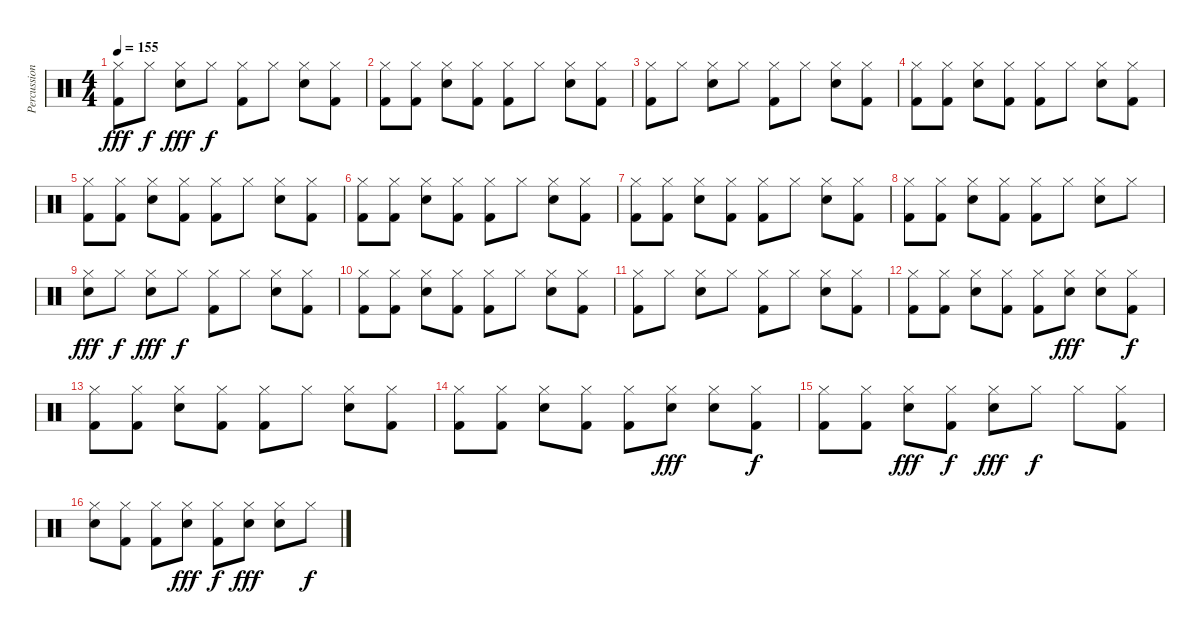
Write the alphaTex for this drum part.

\track ("Percussions" "Percussion") {instrument percussion}
\staff {score}
\articulation defaults
\ts (4 4)
\tempo 155
\clef neutral
\ks c
("Hi-Hat (closed)" "Kick (hit) 2").8{dy fff} "Hi-Hat (closed)".8{dy f} ("Hi-Hat (closed)" "Electric Snare (hit)").8{dy fff} "Hi-Hat (closed)".8{dy f} ("Hi-Hat (closed)" "Kick (hit) 2").8 "Hi-Hat (closed)".8 ("Hi-Hat (closed)" "Electric Snare (hit)").8 ("Hi-Hat (closed)" "Kick (hit) 2").8 |
("Hi-Hat (closed)" "Kick (hit) 2").8 ("Hi-Hat (closed)" "Kick (hit) 2").8 ("Hi-Hat (closed)" "Electric Snare (hit)").8 ("Hi-Hat (closed)" "Kick (hit) 2").8 ("Hi-Hat (closed)" "Kick (hit) 2").8 "Hi-Hat (closed)".8 ("Hi-Hat (closed)" "Electric Snare (hit)").8 ("Hi-Hat (closed)" "Kick (hit) 2").8 |
("Hi-Hat (closed)" "Kick (hit) 2").8 "Hi-Hat (closed)".8 ("Hi-Hat (closed)" "Electric Snare (hit)").8 "Hi-Hat (closed)".8 ("Hi-Hat (closed)" "Kick (hit) 2").8 "Hi-Hat (closed)".8 ("Hi-Hat (closed)" "Electric Snare (hit)").8 ("Hi-Hat (closed)" "Kick (hit) 2").8 |
("Hi-Hat (closed)" "Kick (hit) 2").8 ("Hi-Hat (closed)" "Kick (hit) 2").8 ("Hi-Hat (closed)" "Electric Snare (hit)").8 ("Hi-Hat (closed)" "Kick (hit) 2").8 ("Hi-Hat (closed)" "Kick (hit) 2").8 "Hi-Hat (closed)".8 ("Hi-Hat (closed)" "Electric Snare (hit)").8 ("Hi-Hat (closed)" "Kick (hit) 2").8 |
("Hi-Hat (closed)" "Kick (hit) 2").8 ("Hi-Hat (closed)" "Kick (hit) 2").8 ("Hi-Hat (closed)" "Electric Snare (hit)").8 ("Hi-Hat (closed)" "Kick (hit) 2").8 ("Hi-Hat (closed)" "Kick (hit) 2").8 "Hi-Hat (closed)".8 ("Hi-Hat (closed)" "Electric Snare (hit)").8 ("Hi-Hat (closed)" "Kick (hit) 2").8 |
("Hi-Hat (closed)" "Kick (hit) 2").8 ("Hi-Hat (closed)" "Kick (hit) 2").8 ("Hi-Hat (closed)" "Electric Snare (hit)").8 ("Hi-Hat (closed)" "Kick (hit) 2").8 ("Hi-Hat (closed)" "Kick (hit) 2").8 "Hi-Hat (closed)".8 ("Hi-Hat (closed)" "Electric Snare (hit)").8 ("Hi-Hat (closed)" "Kick (hit) 2").8 |
("Hi-Hat (closed)" "Kick (hit) 2").8 ("Hi-Hat (closed)" "Kick (hit) 2").8 ("Hi-Hat (closed)" "Electric Snare (hit)").8 ("Hi-Hat (closed)" "Kick (hit) 2").8 ("Hi-Hat (closed)" "Kick (hit) 2").8 "Hi-Hat (closed)".8 ("Hi-Hat (closed)" "Electric Snare (hit)").8 ("Hi-Hat (closed)" "Kick (hit) 2").8 |
("Hi-Hat (closed)" "Kick (hit) 2").8 ("Hi-Hat (closed)" "Kick (hit) 2").8 ("Hi-Hat (closed)" "Electric Snare (hit)").8 ("Hi-Hat (closed)" "Kick (hit) 2").8 ("Hi-Hat (closed)" "Kick (hit) 2").8 "Hi-Hat (closed)".8 ("Hi-Hat (closed)" "Electric Snare (hit)").8 "Hi-Hat (closed)".8 |
("Hi-Hat (closed)" "Electric Snare (hit)").8{dy fff} "Hi-Hat (closed)".8{dy f} ("Hi-Hat (closed)" "Electric Snare (hit)").8{dy fff} "Hi-Hat (closed)".8{dy f} ("Hi-Hat (closed)" "Kick (hit) 2").8 "Hi-Hat (closed)".8 ("Hi-Hat (closed)" "Electric Snare (hit)").8 ("Hi-Hat (closed)" "Kick (hit) 2").8 |
("Hi-Hat (closed)" "Kick (hit) 2").8 ("Hi-Hat (closed)" "Kick (hit) 2").8 ("Hi-Hat (closed)" "Electric Snare (hit)").8 ("Hi-Hat (closed)" "Kick (hit) 2").8 ("Hi-Hat (closed)" "Kick (hit) 2").8 "Hi-Hat (closed)".8 ("Hi-Hat (closed)" "Electric Snare (hit)").8 ("Hi-Hat (closed)" "Kick (hit) 2").8 |
("Hi-Hat (closed)" "Kick (hit) 2").8 "Hi-Hat (closed)".8 ("Hi-Hat (closed)" "Electric Snare (hit)").8 "Hi-Hat (closed)".8 ("Hi-Hat (closed)" "Kick (hit) 2").8 "Hi-Hat (closed)".8 ("Hi-Hat (closed)" "Electric Snare (hit)").8 ("Hi-Hat (closed)" "Kick (hit) 2").8 |
("Hi-Hat (closed)" "Kick (hit) 2").8 ("Hi-Hat (closed)" "Kick (hit) 2").8 ("Hi-Hat (closed)" "Electric Snare (hit)").8 ("Hi-Hat (closed)" "Kick (hit) 2").8 ("Hi-Hat (closed)" "Kick (hit) 2").8 ("Hi-Hat (closed)" "Electric Snare (hit)").8{dy fff} ("Hi-Hat (closed)" "Electric Snare (hit)").8 ("Hi-Hat (closed)" "Kick (hit) 2").8{dy f} |
("Hi-Hat (closed)" "Kick (hit) 2").8 ("Hi-Hat (closed)" "Kick (hit) 2").8 ("Hi-Hat (closed)" "Electric Snare (hit)").8 ("Hi-Hat (closed)" "Kick (hit) 2").8 ("Hi-Hat (closed)" "Kick (hit) 2").8 "Hi-Hat (closed)".8 ("Hi-Hat (closed)" "Electric Snare (hit)").8 ("Hi-Hat (closed)" "Kick (hit) 2").8 |
("Hi-Hat (closed)" "Kick (hit) 2").8 ("Hi-Hat (closed)" "Kick (hit) 2").8 ("Hi-Hat (closed)" "Electric Snare (hit)").8 ("Hi-Hat (closed)" "Kick (hit) 2").8 ("Hi-Hat (closed)" "Kick (hit) 2").8 ("Hi-Hat (closed)" "Electric Snare (hit)").8{dy fff} ("Hi-Hat (closed)" "Electric Snare (hit)").8 ("Hi-Hat (closed)" "Kick (hit) 2").8{dy f} |
("Hi-Hat (closed)" "Kick (hit) 2").8 ("Hi-Hat (closed)" "Kick (hit) 2").8 ("Hi-Hat (closed)" "Electric Snare (hit)").8{dy fff} ("Hi-Hat (closed)" "Kick (hit) 2").8{dy f} ("Hi-Hat (closed)" "Electric Snare (hit)").8{dy fff} "Hi-Hat (closed)".8{dy f} "Hi-Hat (closed)".8 ("Hi-Hat (closed)" "Kick (hit) 2").8 |
("Hi-Hat (closed)" "Electric Snare (hit)").8 ("Hi-Hat (closed)" "Kick (hit) 2").8 ("Hi-Hat (closed)" "Kick (hit) 2").8 ("Hi-Hat (closed)" "Electric Snare (hit)").8{dy fff} ("Hi-Hat (closed)" "Kick (hit) 2").8{dy f} ("Hi-Hat (closed)" "Electric Snare (hit)").8{dy fff} ("Hi-Hat (closed)" "Electric Snare (hit)").8 "Hi-Hat (closed)".8{dy f}
